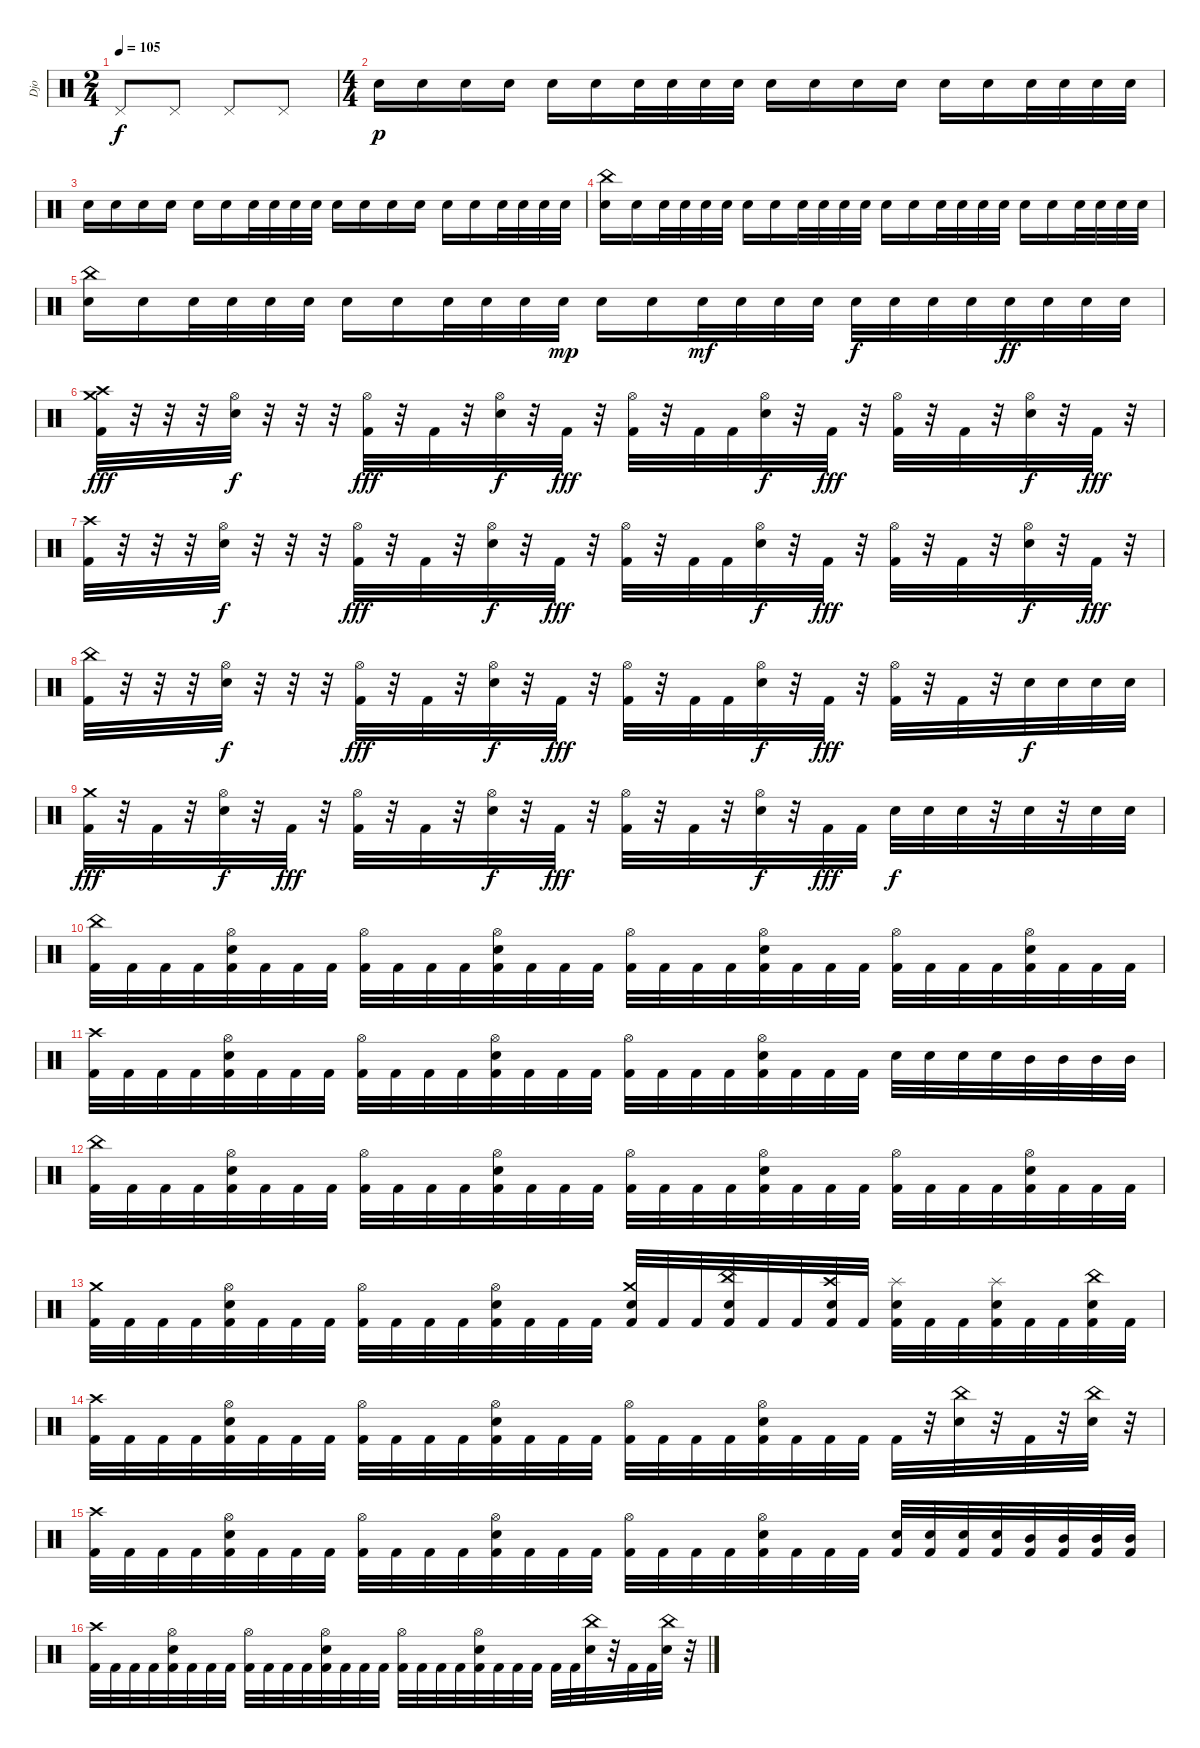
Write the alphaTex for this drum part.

\track ("Djo" "Djo") {instrument percussion}
\staff {score}
\articulation defaults
\ts (2 4)
\tempo 105
\tempo 90
\tempo 105
\clef neutral
\ks c "Pedal Hi-Hat (hit)".8{dy f} "Pedal Hi-Hat (hit)".8 "Pedal Hi-Hat (hit)".8 "Pedal Hi-Hat (hit)".8
|
\ts (4 4)
"Snare (hit) 2".16{dy p} "Snare (hit) 2".16 "Snare (hit) 2".16 "Snare (hit) 2".16 "Snare (hit) 2".16 "Snare (hit) 2".16 "Snare (hit) 2".32 "Snare (hit) 2".32 "Snare (hit) 2".32 "Snare (hit) 2".32 "Snare (hit) 2".16 "Snare (hit) 2".16 "Snare (hit) 2".16 "Snare (hit) 2".16 "Snare (hit) 2".16 "Snare (hit) 2".16 "Snare (hit) 2".32 "Snare (hit) 2".32 "Snare (hit) 2".32 "Snare (hit) 2".32 |
"Snare (hit) 2".16 "Snare (hit) 2".16 "Snare (hit) 2".16 "Snare (hit) 2".16 "Snare (hit) 2".16 "Snare (hit) 2".16 "Snare (hit) 2".32 "Snare (hit) 2".32 "Snare (hit) 2".32 "Snare (hit) 2".32 "Snare (hit) 2".16 "Snare (hit) 2".16 "Snare (hit) 2".16 "Snare (hit) 2".16 "Snare (hit) 2".16 "Snare (hit) 2".16 "Snare (hit) 2".32 "Snare (hit) 2".32 "Snare (hit) 2".32 "Snare (hit) 2".32 |
("China (hit)" "Snare (hit) 2").16 "Snare (hit) 2".16 "Snare (hit) 2".32 "Snare (hit) 2".32 "Snare (hit) 2".32 "Snare (hit) 2".32 "Snare (hit) 2".16 "Snare (hit) 2".16 "Snare (hit) 2".32 "Snare (hit) 2".32 "Snare (hit) 2".32 "Snare (hit) 2".32 "Snare (hit) 2".16 "Snare (hit) 2".16 "Snare (hit) 2".32 "Snare (hit) 2".32 "Snare (hit) 2".32 "Snare (hit) 2".32 "Snare (hit) 2".16 "Snare (hit) 2".16 "Snare (hit) 2".32 "Snare (hit) 2".32 "Snare (hit) 2".32 "Snare (hit) 2".32 |
("China (hit)" "Snare (hit) 2").16 "Snare (hit) 2".16 "Snare (hit) 2".32 "Snare (hit) 2".32 "Snare (hit) 2".32 "Snare (hit) 2".32 "Snare (hit) 2".16 "Snare (hit) 2".16 "Snare (hit) 2".32 "Snare (hit) 2".32 "Snare (hit) 2".32 "Snare (hit) 2".32{dy mp} "Snare (hit) 2".16 "Snare (hit) 2".16 "Snare (hit) 2".32{dy mf} "Snare (hit) 2".32 "Snare (hit) 2".32 "Snare (hit) 2".32 "Snare (hit) 2".32{dy f} "Snare (hit) 2".32 "Snare (hit) 2".32 "Snare (hit) 2".32 "Snare (hit) 2".32{dy ff} "Snare (hit) 2".32 "Snare (hit) 2".32 "Snare (hit) 2".32 |
("Crash medium (hit)" "Crash high (hit)" "Kick (hit) 2").32{dy fff} r.32 r.32 r.32 ("Hi-Hat (open)" "Snare (hit) 2").32{dy f} r.32 r.32 r.32 ("Hi-Hat (open)" "Kick (hit) 2").32{dy fff} r.32 "Kick (hit) 2".32 r.32 ("Hi-Hat (open)" "Snare (hit) 2").32{dy f} r.32 "Kick (hit) 2".32{dy fff} r.32 ("Hi-Hat (open)" "Kick (hit) 2").32 r.32 "Kick (hit) 2".32 "Kick (hit) 2".32 ("Hi-Hat (open)" "Snare (hit) 2").32{dy f} r.32 "Kick (hit) 2".32{dy fff} r.32 ("Hi-Hat (open)" "Kick (hit) 2").32 r.32 "Kick (hit) 2".32 r.32 ("Hi-Hat (open)" "Snare (hit) 2").32{dy f} r.32 "Kick (hit) 2".32{dy fff} r.32 |
("Crash high (hit)" "Kick (hit) 2").32 r.32 r.32 r.32 ("Hi-Hat (open)" "Snare (hit) 2").32{dy f} r.32 r.32 r.32 ("Hi-Hat (open)" "Kick (hit) 2").32{dy fff} r.32 "Kick (hit) 2".32 r.32 ("Hi-Hat (open)" "Snare (hit) 2").32{dy f} r.32 "Kick (hit) 2".32{dy fff} r.32 ("Hi-Hat (open)" "Kick (hit) 2").32 r.32 "Kick (hit) 2".32 "Kick (hit) 2".32 ("Hi-Hat (open)" "Snare (hit) 2").32{dy f} r.32 "Kick (hit) 2".32{dy fff} r.32 ("Hi-Hat (open)" "Kick (hit) 2").32 r.32 "Kick (hit) 2".32 r.32 ("Hi-Hat (open)" "Snare (hit) 2").32{dy f} r.32 "Kick (hit) 2".32{dy fff} r.32 |
("China (hit)" "Kick (hit) 2").32 r.32 r.32 r.32 ("Hi-Hat (open)" "Snare (hit) 2").32{dy f} r.32 r.32 r.32 ("Hi-Hat (open)" "Kick (hit) 2").32{dy fff} r.32 "Kick (hit) 2".32 r.32 ("Hi-Hat (open)" "Snare (hit) 2").32{dy f} r.32 "Kick (hit) 2".32{dy fff} r.32 ("Hi-Hat (open)" "Kick (hit) 2").32 r.32 "Kick (hit) 2".32 "Kick (hit) 2".32 ("Hi-Hat (open)" "Snare (hit) 2").32{dy f} r.32 "Kick (hit) 2".32{dy fff} r.32 ("Hi-Hat (open)" "Kick (hit) 2").32 r.32 "Kick (hit) 2".32 r.32 "Snare (hit) 2".32{dy f} "Snare (hit) 2".32 "Snare (hit) 2".32 "Snare (hit) 2".32 |
("Crash medium (hit)" "Kick (hit) 2").32{dy fff} r.32 "Kick (hit) 2".32 r.32 ("Hi-Hat (open)" "Snare (hit) 2").32{dy f} r.32 "Kick (hit) 2".32{dy fff} r.32 ("Hi-Hat (open)" "Kick (hit) 2").32 r.32 "Kick (hit) 2".32 r.32 ("Hi-Hat (open)" "Snare (hit) 2").32{dy f} r.32 "Kick (hit) 2".32{dy fff} r.32 ("Hi-Hat (open)" "Kick (hit) 2").32 r.32 "Kick (hit) 2".32 r.32 ("Hi-Hat (open)" "Snare (hit) 2").32{dy f} r.32 "Kick (hit) 2".32{dy fff} "Kick (hit) 2".32 "Snare (hit) 2".32{dy f} "Snare (hit) 2".32 "Snare (hit) 2".32 r.32 "Snare (hit) 2".32 r.32 "Snare (hit) 2".32 "Snare (hit) 2".32 |
("China (hit)" "Kick (hit) 2").32 "Kick (hit) 2".32 "Kick (hit) 2".32 "Kick (hit) 2".32 ("Hi-Hat (open)" "Snare (hit) 2" "Kick (hit) 2").32 "Kick (hit) 2".32 "Kick (hit) 2".32 "Kick (hit) 2".32 ("Hi-Hat (open)" "Kick (hit) 2").32 "Kick (hit) 2".32 "Kick (hit) 2".32 "Kick (hit) 2".32 ("Hi-Hat (open)" "Snare (hit) 2" "Kick (hit) 2").32 "Kick (hit) 2".32 "Kick (hit) 2".32 "Kick (hit) 2".32 ("Hi-Hat (open)" "Kick (hit) 2").32 "Kick (hit) 2".32 "Kick (hit) 2".32 "Kick (hit) 2".32 ("Hi-Hat (open)" "Snare (hit) 2" "Kick (hit) 2").32 "Kick (hit) 2".32 "Kick (hit) 2".32 "Kick (hit) 2".32 ("Hi-Hat (open)" "Kick (hit) 2").32 "Kick (hit) 2".32 "Kick (hit) 2".32 "Kick (hit) 2".32 ("Hi-Hat (open)" "Snare (hit) 2" "Kick (hit) 2").32 "Kick (hit) 2".32 "Kick (hit) 2".32 "Kick (hit) 2".32 |
("Crash high (hit)" "Kick (hit) 2").32 "Kick (hit) 2".32 "Kick (hit) 2".32 "Kick (hit) 2".32 ("Hi-Hat (open)" "Snare (hit) 2" "Kick (hit) 2").32 "Kick (hit) 2".32 "Kick (hit) 2".32 "Kick (hit) 2".32 ("Hi-Hat (open)" "Kick (hit) 2").32 "Kick (hit) 2".32 "Kick (hit) 2".32 "Kick (hit) 2".32 ("Hi-Hat (open)" "Snare (hit) 2" "Kick (hit) 2").32 "Kick (hit) 2".32 "Kick (hit) 2".32 "Kick (hit) 2".32 ("Hi-Hat (open)" "Kick (hit) 2").32 "Kick (hit) 2".32 "Kick (hit) 2".32 "Kick (hit) 2".32 ("Hi-Hat (open)" "Snare (hit) 2" "Kick (hit) 2").32 "Kick (hit) 2".32 "Kick (hit) 2".32 "Kick (hit) 2".32 "Snare (hit) 2".32 "Snare (hit) 2".32 "Snare (hit) 2".32 "Snare (hit) 2".32 "Mid Tom (hit)".32 "Mid Tom (hit)".32 "Mid Tom (hit)".32 "Mid Tom (hit)".32 |
("China (hit)" "Kick (hit) 2").32 "Kick (hit) 2".32 "Kick (hit) 2".32 "Kick (hit) 2".32 ("Hi-Hat (open)" "Snare (hit) 2" "Kick (hit) 2").32 "Kick (hit) 2".32 "Kick (hit) 2".32 "Kick (hit) 2".32 ("Hi-Hat (open)" "Kick (hit) 2").32 "Kick (hit) 2".32 "Kick (hit) 2".32 "Kick (hit) 2".32 ("Hi-Hat (open)" "Snare (hit) 2" "Kick (hit) 2").32 "Kick (hit) 2".32 "Kick (hit) 2".32 "Kick (hit) 2".32 ("Hi-Hat (open)" "Kick (hit) 2").32 "Kick (hit) 2".32 "Kick (hit) 2".32 "Kick (hit) 2".32 ("Hi-Hat (open)" "Snare (hit) 2" "Kick (hit) 2").32 "Kick (hit) 2".32 "Kick (hit) 2".32 "Kick (hit) 2".32 ("Hi-Hat (open)" "Kick (hit) 2").32 "Kick (hit) 2".32 "Kick (hit) 2".32 "Kick (hit) 2".32 ("Hi-Hat (open)" "Snare (hit) 2" "Kick (hit) 2").32 "Kick (hit) 2".32 "Kick (hit) 2".32 "Kick (hit) 2".32 |
("Crash medium (hit)" "Kick (hit) 2").32 "Kick (hit) 2".32 "Kick (hit) 2".32 "Kick (hit) 2".32 ("Hi-Hat (open)" "Snare (hit) 2" "Kick (hit) 2").32 "Kick (hit) 2".32 "Kick (hit) 2".32 "Kick (hit) 2".32 ("Hi-Hat (open)" "Kick (hit) 2").32 "Kick (hit) 2".32 "Kick (hit) 2".32 "Kick (hit) 2".32 ("Hi-Hat (open)" "Snare (hit) 2" "Kick (hit) 2").32 "Kick (hit) 2".32 "Kick (hit) 2".32 "Kick (hit) 2".32 ("Crash medium (hit)" "Snare (hit) 2" "Kick (hit) 2").32 "Kick (hit) 2".32 "Kick (hit) 2".32 ("China (hit)" "Snare (hit) 2" "Kick (hit) 2").32 "Kick (hit) 2".32 "Kick (hit) 2".32 ("Crash high (hit)" "Snare (hit) 2" "Kick (hit) 2").32 "Kick (hit) 2".32 ("Splash (hit)" "Snare (hit) 2" "Kick (hit) 2").32 "Kick (hit) 2".32 "Kick (hit) 2".32 ("Splash (hit)" "Snare (hit) 2" "Kick (hit) 2").32 "Kick (hit) 2".32 "Kick (hit) 2".32 ("China (hit)" "Snare (hit) 2" "Kick (hit) 2").32 "Kick (hit) 2".32 |
\section ("" "")
("Crash high (hit)" "Kick (hit) 2").32 "Kick (hit) 2".32 "Kick (hit) 2".32 "Kick (hit) 2".32 ("Hi-Hat (open)" "Snare (hit) 2" "Kick (hit) 2").32 "Kick (hit) 2".32 "Kick (hit) 2".32 "Kick (hit) 2".32 ("Hi-Hat (open)" "Kick (hit) 2").32 "Kick (hit) 2".32 "Kick (hit) 2".32 "Kick (hit) 2".32 ("Hi-Hat (open)" "Snare (hit) 2" "Kick (hit) 2").32 "Kick (hit) 2".32 "Kick (hit) 2".32 "Kick (hit) 2".32 ("Hi-Hat (open)" "Kick (hit) 2").32 "Kick (hit) 2".32 "Kick (hit) 2".32 "Kick (hit) 2".32 ("Hi-Hat (open)" "Snare (hit) 2" "Kick (hit) 2").32 "Kick (hit) 2".32 "Kick (hit) 2".32 "Kick (hit) 2".32 "Kick (hit) 2".32 r.32 ("China (hit)" "Snare (hit) 2").32 r.32 "Kick (hit) 2".32 r.32 ("China (hit)" "Snare (hit) 2").32 r.32 |
("Crash high (hit)" "Kick (hit) 2").32 "Kick (hit) 2".32 "Kick (hit) 2".32 "Kick (hit) 2".32 ("Hi-Hat (open)" "Snare (hit) 2" "Kick (hit) 2").32 "Kick (hit) 2".32 "Kick (hit) 2".32 "Kick (hit) 2".32 ("Hi-Hat (open)" "Kick (hit) 2").32 "Kick (hit) 2".32 "Kick (hit) 2".32 "Kick (hit) 2".32 ("Hi-Hat (open)" "Snare (hit) 2" "Kick (hit) 2").32 "Kick (hit) 2".32 "Kick (hit) 2".32 "Kick (hit) 2".32 ("Hi-Hat (open)" "Kick (hit) 2").32 "Kick (hit) 2".32 "Kick (hit) 2".32 "Kick (hit) 2".32 ("Hi-Hat (open)" "Snare (hit) 2" "Kick (hit) 2").32 "Kick (hit) 2".32 "Kick (hit) 2".32 "Kick (hit) 2".32 ("Snare (hit) 2" "Kick (hit) 2").32 ("Snare (hit) 2" "Kick (hit) 2").32 ("Snare (hit) 2" "Kick (hit) 2").32 ("Snare (hit) 2" "Kick (hit) 2").32 ("Mid Tom (hit)" "Kick (hit) 2").32 ("Mid Tom (hit)" "Kick (hit) 2").32 ("Mid Tom (hit)" "Kick (hit) 2").32 ("Mid Tom (hit)" "Kick (hit) 2").32 |
("Crash high (hit)" "Kick (hit) 2").32 "Kick (hit) 2".32 "Kick (hit) 2".32 "Kick (hit) 2".32 ("Hi-Hat (open)" "Snare (hit) 2" "Kick (hit) 2").32 "Kick (hit) 2".32 "Kick (hit) 2".32 "Kick (hit) 2".32 ("Hi-Hat (open)" "Kick (hit) 2").32 "Kick (hit) 2".32 "Kick (hit) 2".32 "Kick (hit) 2".32 ("Hi-Hat (open)" "Snare (hit) 2" "Kick (hit) 2").32 "Kick (hit) 2".32 "Kick (hit) 2".32 "Kick (hit) 2".32 ("Hi-Hat (open)" "Kick (hit) 2").32 "Kick (hit) 2".32 "Kick (hit) 2".32 "Kick (hit) 2".32 ("Hi-Hat (open)" "Snare (hit) 2" "Kick (hit) 2").32 "Kick (hit) 2".32 "Kick (hit) 2".32 "Kick (hit) 2".32 "Kick (hit) 2".32 "Kick (hit) 2".32 ("China (hit)" "Snare (hit) 2").32 r.32 "Kick (hit) 2".32 "Kick (hit) 2".32 ("China (hit)" "Snare (hit) 2").32 r.32
